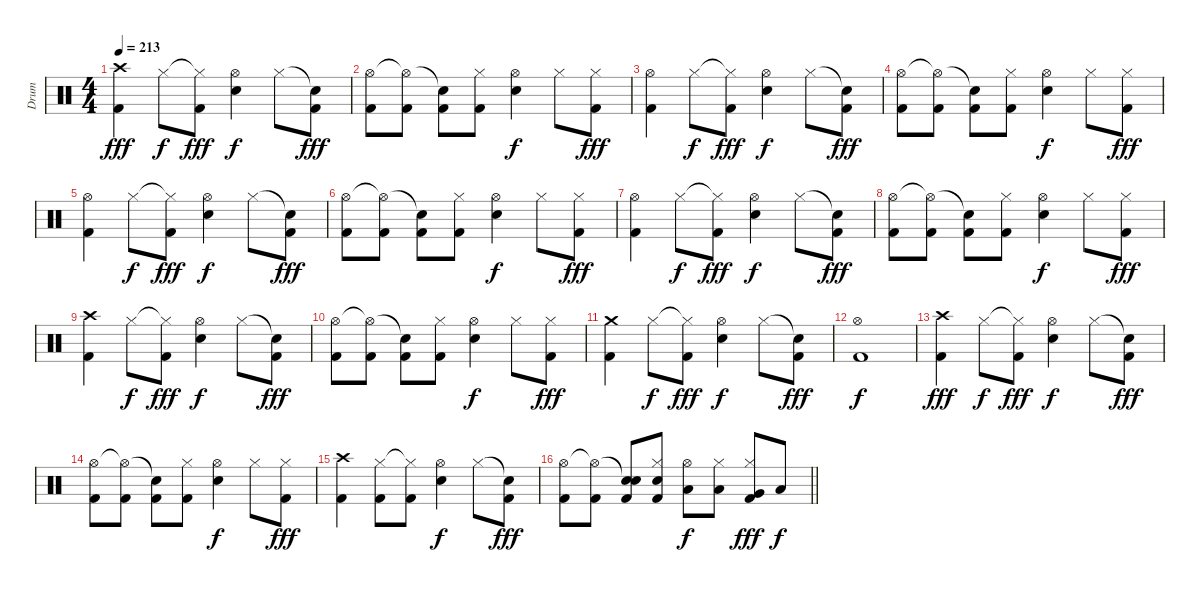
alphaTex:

\track ("Drum" "Drum") {instrument percussion}
\staff {score}
\articulation defaults
\ts (4 4)
\tempo 213
\clef neutral
\ks c
("Crash high (hit)" "Kick (hit) 2").4{dy fff} "Hi-Hat (closed)".8{dy f} ("Hi-Hat (closed)"{t} "Kick (hit) 2").8{dy fff} ("Hi-Hat (open)" "Snare (hit) 2").4{dy f} "Hi-Hat (closed)".8 ("Snare (hit)"{t} "Kick (hit) 2").8{dy fff} |
("Hi-Hat (open)" "Kick (hit) 2").8 ("Hi-Hat (open)"{t} "Kick (hit) 2").8 ("Snare (hit)"{t} "Kick (hit) 2").8 ("Hi-Hat (closed)" "Kick (hit) 2").8 ("Hi-Hat (open)" "Snare (hit) 2").4{dy f} "Hi-Hat (closed)".8 ("Hi-Hat (closed)" "Kick (hit) 2").8{dy fff} |
("Hi-Hat (open)" "Kick (hit) 2").4 "Hi-Hat (closed)".8{dy f} ("Hi-Hat (closed)"{t} "Kick (hit) 2").8{dy fff} ("Hi-Hat (open)" "Snare (hit) 2").4{dy f} "Hi-Hat (closed)".8 ("Snare (hit)"{t} "Kick (hit) 2").8{dy fff} |
("Hi-Hat (open)" "Kick (hit) 2").8 ("Hi-Hat (open)"{t} "Kick (hit) 2").8 ("Snare (hit)"{t} "Kick (hit) 2").8 ("Hi-Hat (closed)" "Kick (hit) 2").8 ("Hi-Hat (open)" "Snare (hit) 2").4{dy f} "Hi-Hat (closed)".8 ("Hi-Hat (closed)" "Kick (hit) 2").8{dy fff} |
("Hi-Hat (open)" "Kick (hit) 2").4 "Hi-Hat (closed)".8{dy f} ("Hi-Hat (closed)"{t} "Kick (hit) 2").8{dy fff} ("Hi-Hat (open)" "Snare (hit) 2").4{dy f} "Hi-Hat (closed)".8 ("Snare (hit)"{t} "Kick (hit) 2").8{dy fff} |
("Hi-Hat (open)" "Kick (hit) 2").8 ("Hi-Hat (open)"{t} "Kick (hit) 2").8 ("Snare (hit)"{t} "Kick (hit) 2").8 ("Hi-Hat (closed)" "Kick (hit) 2").8 ("Hi-Hat (open)" "Snare (hit) 2").4{dy f} "Hi-Hat (closed)".8 ("Hi-Hat (closed)" "Kick (hit) 2").8{dy fff} |
("Hi-Hat (open)" "Kick (hit) 2").4 "Hi-Hat (closed)".8{dy f} ("Hi-Hat (closed)"{t} "Kick (hit) 2").8{dy fff} ("Hi-Hat (open)" "Snare (hit) 2").4{dy f} "Hi-Hat (closed)".8 ("Snare (hit)"{t} "Kick (hit) 2").8{dy fff} |
("Hi-Hat (open)" "Kick (hit) 2").8 ("Hi-Hat (open)"{t} "Kick (hit) 2").8 ("Snare (hit)"{t} "Kick (hit) 2").8 ("Hi-Hat (closed)" "Kick (hit) 2").8 ("Hi-Hat (open)" "Snare (hit) 2").4{dy f} "Hi-Hat (closed)".8 ("Hi-Hat (closed)" "Kick (hit) 2").8{dy fff} |
("Crash high (hit)" "Kick (hit) 2").4 "Hi-Hat (closed)".8{dy f} ("Hi-Hat (closed)"{t} "Kick (hit) 2").8{dy fff} ("Hi-Hat (open)" "Snare (hit) 2").4{dy f} "Hi-Hat (closed)".8 ("Snare (hit)"{t} "Kick (hit) 2").8{dy fff} |
("Hi-Hat (open)" "Kick (hit) 2").8 ("Hi-Hat (open)"{t} "Kick (hit) 2").8 ("Snare (hit)"{t} "Kick (hit) 2").8 ("Hi-Hat (closed)" "Kick (hit) 2").8 ("Hi-Hat (open)" "Snare (hit) 2").4{dy f} "Hi-Hat (closed)".8 ("Hi-Hat (closed)" "Kick (hit) 2").8{dy fff} |
("Crash medium (hit)" "Kick (hit) 2").4 "Hi-Hat (closed)".8{dy f} ("Hi-Hat (closed)"{t} "Kick (hit) 2").8{dy fff} ("Hi-Hat (open)" "Snare (hit) 2").4{dy f} "Hi-Hat (closed)".8 ("Snare (hit)"{t} "Kick (hit) 2").8{dy fff} |
("Hi-Hat (open)" "Kick (hit) 2").1{dy f} |
("Crash high (hit)" "Kick (hit) 2").4{dy fff} "Hi-Hat (closed)".8{dy f} ("Hi-Hat (closed)"{t} "Kick (hit) 2").8{dy fff} ("Hi-Hat (open)" "Snare (hit) 2").4{dy f} "Hi-Hat (closed)".8 ("Snare (hit)"{t} "Kick (hit) 2").8{dy fff} |
("Hi-Hat (open)" "Kick (hit) 2").8 ("Hi-Hat (open)"{t} "Kick (hit) 2").8 ("Snare (hit)"{t} "Kick (hit) 2").8 ("Hi-Hat (closed)" "Kick (hit) 2").8 ("Hi-Hat (open)" "Snare (hit) 2").4{dy f} "Hi-Hat (closed)".8 ("Hi-Hat (closed)" "Kick (hit) 2").8{dy fff} |
("Crash high (hit)" "Kick (hit) 2").4 ("Hi-Hat (closed)" "Kick (hit) 2").8 ("Hi-Hat (closed)"{t} "Kick (hit) 2").8 ("Hi-Hat (open)" "Snare (hit) 2").4{dy f} "Hi-Hat (closed)".8 ("Snare (hit)"{t} "Kick (hit) 2").8{dy fff} |
\barLineRight lightlight
("Hi-Hat (open)" "Kick (hit) 2").8 ("Hi-Hat (open)"{t} "Kick (hit) 2").8 ("Snare (hit)"{t} "Snare (hit) 2" "Kick (hit) 2").8 ("Hi-Hat (closed)" "Snare (hit) 2" "Kick (hit) 2").8 ("Hi-Hat (open)" "Low Tom (hit)").8{dy f} ("Hi-Hat (closed)" "Low Tom (hit)").8 ("Hi-Hat (closed)" "Very Low Tom (hit)" "Kick (hit) 2").8{dy fff} "Low Floor Tom (hit)".8{dy f}
